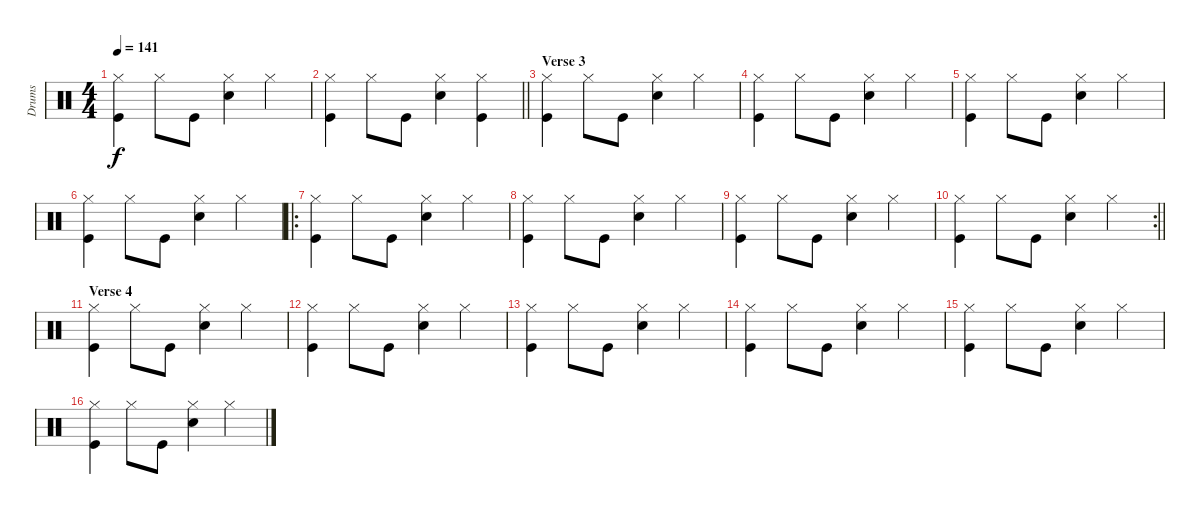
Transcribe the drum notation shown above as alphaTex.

\track ("Drums" "Drums") {instrument percussion}
\staff {score}
\articulation defaults
\ts (4 4)
\tempo 141
\clef neutral
\ks c
("Hi-Hat (closed)" "Kick (hit)").4{dy f} "Hi-Hat (closed)".8 "Kick (hit)".8 ("Hi-Hat (closed)" "Snare (hit) 2").4 "Hi-Hat (closed)".4 |
\barLineRight lightlight
("Hi-Hat (closed)" "Kick (hit)").4 "Hi-Hat (closed)".8 "Kick (hit)".8 ("Hi-Hat (closed)" "Snare (hit) 2").4 ("Hi-Hat (closed)" "Kick (hit)").4 |
\section ("" "Verse 3")
("Hi-Hat (closed)" "Kick (hit)").4 "Hi-Hat (closed)".8 "Kick (hit)".8 ("Hi-Hat (closed)" "Snare (hit) 2").4 "Hi-Hat (closed)".4 |
("Hi-Hat (closed)" "Kick (hit)").4 "Hi-Hat (closed)".8 "Kick (hit)".8 ("Hi-Hat (closed)" "Snare (hit) 2").4 "Hi-Hat (closed)".4 |
("Hi-Hat (closed)" "Kick (hit)").4 "Hi-Hat (closed)".8 "Kick (hit)".8 ("Hi-Hat (closed)" "Snare (hit) 2").4 "Hi-Hat (closed)".4 |
("Hi-Hat (closed)" "Kick (hit)").4 "Hi-Hat (closed)".8 "Kick (hit)".8 ("Hi-Hat (closed)" "Snare (hit) 2").4 "Hi-Hat (closed)".4 |
\ro
("Hi-Hat (closed)" "Kick (hit)").4 "Hi-Hat (closed)".8 "Kick (hit)".8 ("Hi-Hat (closed)" "Snare (hit) 2").4 "Hi-Hat (closed)".4 |
("Hi-Hat (closed)" "Kick (hit)").4 "Hi-Hat (closed)".8 "Kick (hit)".8 ("Hi-Hat (closed)" "Snare (hit) 2").4 "Hi-Hat (closed)".4 |
("Hi-Hat (closed)" "Kick (hit)").4 "Hi-Hat (closed)".8 "Kick (hit)".8 ("Hi-Hat (closed)" "Snare (hit) 2").4 "Hi-Hat (closed)".4 |
\rc 2
\barLineRight lightlight
("Hi-Hat (closed)" "Kick (hit)").4 "Hi-Hat (closed)".8 "Kick (hit)".8 ("Hi-Hat (closed)" "Snare (hit) 2").4 "Hi-Hat (closed)".4 |
\section ("" "Verse 4")
("Hi-Hat (closed)" "Kick (hit)").4 "Hi-Hat (closed)".8 "Kick (hit)".8 ("Hi-Hat (closed)" "Snare (hit) 2").4 "Hi-Hat (closed)".4 |
("Hi-Hat (closed)" "Kick (hit)").4 "Hi-Hat (closed)".8 "Kick (hit)".8 ("Hi-Hat (closed)" "Snare (hit) 2").4 "Hi-Hat (closed)".4 |
("Hi-Hat (closed)" "Kick (hit)").4 "Hi-Hat (closed)".8 "Kick (hit)".8 ("Hi-Hat (closed)" "Snare (hit) 2").4 "Hi-Hat (closed)".4 |
("Hi-Hat (closed)" "Kick (hit)").4 "Hi-Hat (closed)".8 "Kick (hit)".8 ("Hi-Hat (closed)" "Snare (hit) 2").4 "Hi-Hat (closed)".4 |
("Hi-Hat (closed)" "Kick (hit)").4 "Hi-Hat (closed)".8 "Kick (hit)".8 ("Hi-Hat (closed)" "Snare (hit) 2").4 "Hi-Hat (closed)".4 |
("Hi-Hat (closed)" "Kick (hit)").4 "Hi-Hat (closed)".8 "Kick (hit)".8 ("Hi-Hat (closed)" "Snare (hit) 2").4 "Hi-Hat (closed)".4
